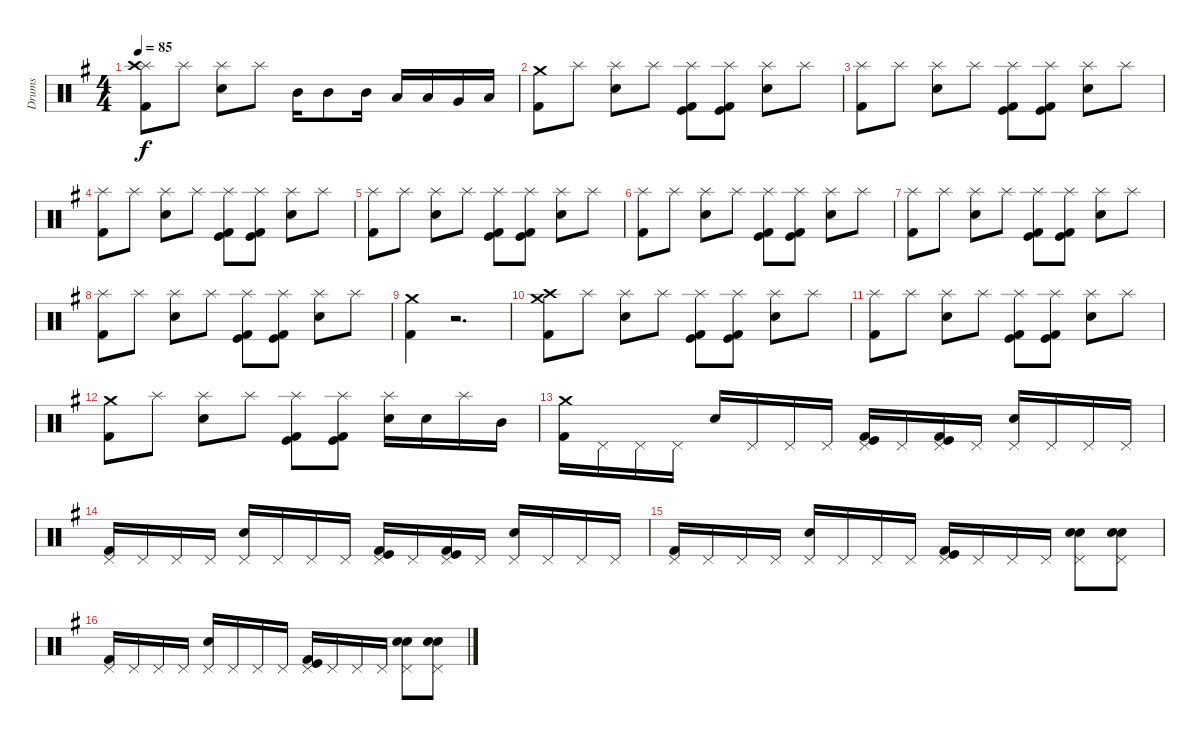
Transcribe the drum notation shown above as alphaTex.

\track ("Drums" "Drums") {instrument percussion}
\staff {score}
\articulation defaults
\ts (4 4)
\tempo 85
\clef neutral
\ks eminor
("Splash (hit)" "Kick (hit) 2" "Crash high (hit)").8{dy f} "Splash (hit)".8 ("Splash (hit)" "Snare (hit) 2").8 "Splash (hit)".8 "Mid Tom (hit)".16 "Mid Tom (hit)".8 "Mid Tom (hit)".16 "Low Tom (hit)".16 "Low Tom (hit)".16 "Very Low Tom (hit)".16 "Low Floor Tom (hit)".16 |
("Kick (hit) 2" "Crash medium (hit)").8 "Splash (hit)".8 ("Splash (hit)" "Snare (hit) 2").8 "Splash (hit)".8 ("Splash (hit)" "Kick (hit)" "Kick (hit) 2").8 ("Splash (hit)" "Kick (hit)" "Kick (hit) 2").8 ("Splash (hit)" "Snare (hit) 2").8 "Splash (hit)".8 |
("Splash (hit)" "Kick (hit) 2").8 "Splash (hit)".8 ("Splash (hit)" "Snare (hit) 2").8 "Splash (hit)".8 ("Splash (hit)" "Kick (hit)" "Kick (hit) 2").8 ("Splash (hit)" "Kick (hit)" "Kick (hit) 2").8 ("Splash (hit)" "Snare (hit) 2").8 "Splash (hit)".8 |
("Splash (hit)" "Kick (hit) 2").8 "Splash (hit)".8 ("Splash (hit)" "Snare (hit) 2").8 "Splash (hit)".8 ("Splash (hit)" "Kick (hit)" "Kick (hit) 2").8 ("Splash (hit)" "Kick (hit)" "Kick (hit) 2").8 ("Splash (hit)" "Snare (hit) 2").8 "Splash (hit)".8 |
("Splash (hit)" "Kick (hit) 2").8 "Splash (hit)".8 ("Splash (hit)" "Snare (hit) 2").8 "Splash (hit)".8 ("Splash (hit)" "Kick (hit)" "Kick (hit) 2").8 ("Splash (hit)" "Kick (hit)" "Kick (hit) 2").8 ("Splash (hit)" "Snare (hit) 2").8 "Splash (hit)".8 |
("Splash (hit)" "Kick (hit) 2").8 "Splash (hit)".8 ("Splash (hit)" "Snare (hit) 2").8 "Splash (hit)".8 ("Splash (hit)" "Kick (hit)" "Kick (hit) 2").8 ("Splash (hit)" "Kick (hit)" "Kick (hit) 2").8 ("Splash (hit)" "Snare (hit) 2").8 "Splash (hit)".8 |
("Splash (hit)" "Kick (hit) 2").8 "Splash (hit)".8 ("Splash (hit)" "Snare (hit) 2").8 "Splash (hit)".8 ("Splash (hit)" "Kick (hit)" "Kick (hit) 2").8 ("Splash (hit)" "Kick (hit)" "Kick (hit) 2").8 ("Splash (hit)" "Snare (hit) 2").8 "Splash (hit)".8 |
("Splash (hit)" "Kick (hit) 2").8 "Splash (hit)".8 ("Splash (hit)" "Snare (hit) 2").8 "Splash (hit)".8 ("Splash (hit)" "Kick (hit) 2" "Kick (hit)").8 ("Splash (hit)" "Kick (hit)" "Kick (hit) 2").8 ("Splash (hit)" "Snare (hit) 2").8 "Splash (hit)".8 |
("Kick (hit) 2" "Crash medium (hit)").4 r.2{d} |
("Kick (hit) 2" "Crash high (hit)" "Crash medium (hit)").8 "Splash (hit)".8 ("Splash (hit)" "Snare (hit) 2").8 "Splash (hit)".8 ("Splash (hit)" "Kick (hit)" "Kick (hit) 2").8 ("Splash (hit)" "Kick (hit)" "Kick (hit) 2").8 ("Splash (hit)" "Snare (hit) 2").8 "Splash (hit)".8 |
("Splash (hit)" "Kick (hit) 2").8 "Splash (hit)".8 ("Splash (hit)" "Snare (hit) 2").8 "Splash (hit)".8 ("Splash (hit)" "Kick (hit)" "Kick (hit) 2").8 ("Splash (hit)" "Kick (hit)" "Kick (hit) 2").8 ("Splash (hit)" "Snare (hit) 2").8 "Splash (hit)".8 |
("Kick (hit) 2" "Crash medium (hit)").8 "Splash (hit)".8 ("Splash (hit)" "Snare (hit) 2").8 "Splash (hit)".8 ("Splash (hit)" "Kick (hit)" "Kick (hit) 2").8 ("Splash (hit)" "Kick (hit)" "Kick (hit) 2").8 ("Splash (hit)" "Snare (hit) 2").16 "Snare (hit) 2".16 "Splash (hit)".16 "Mid Tom (hit)".16 |
("Crash medium (hit)" "Kick (hit) 2").16 "Pedal Hi-Hat (hit)".16 "Pedal Hi-Hat (hit)".16 "Pedal Hi-Hat (hit)".16 "Snare (hit) 2".16 "Pedal Hi-Hat (hit)".16 "Pedal Hi-Hat (hit)".16 "Pedal Hi-Hat (hit)".16 ("Kick (hit)" "Pedal Hi-Hat (hit)" "Kick (hit) 2").16 "Pedal Hi-Hat (hit)".16 ("Kick (hit)" "Pedal Hi-Hat (hit)" "Kick (hit) 2").16 "Pedal Hi-Hat (hit)".16 ("Pedal Hi-Hat (hit)" "Snare (hit) 2").16 "Pedal Hi-Hat (hit)".16 "Pedal Hi-Hat (hit)".16 "Pedal Hi-Hat (hit)".16 |
("Pedal Hi-Hat (hit)" "Kick (hit) 2").16 "Pedal Hi-Hat (hit)".16 "Pedal Hi-Hat (hit)".16 "Pedal Hi-Hat (hit)".16 ("Pedal Hi-Hat (hit)" "Snare (hit) 2").16 "Pedal Hi-Hat (hit)".16 "Pedal Hi-Hat (hit)".16 "Pedal Hi-Hat (hit)".16 ("Pedal Hi-Hat (hit)" "Kick (hit)" "Kick (hit) 2").16 "Pedal Hi-Hat (hit)".16 ("Pedal Hi-Hat (hit)" "Kick (hit)" "Kick (hit) 2").16 "Pedal Hi-Hat (hit)".16 ("Pedal Hi-Hat (hit)" "Snare (hit) 2").16 "Pedal Hi-Hat (hit)".16 "Pedal Hi-Hat (hit)".16 "Pedal Hi-Hat (hit)".16 |
("Pedal Hi-Hat (hit)" "Kick (hit) 2").16 "Pedal Hi-Hat (hit)".16 "Pedal Hi-Hat (hit)".16 "Pedal Hi-Hat (hit)".16 ("Pedal Hi-Hat (hit)" "Snare (hit) 2").16 "Pedal Hi-Hat (hit)".16 "Pedal Hi-Hat (hit)".16 "Pedal Hi-Hat (hit)".16 ("Pedal Hi-Hat (hit)" "Kick (hit)" "Kick (hit) 2").16 "Pedal Hi-Hat (hit)".16 "Pedal Hi-Hat (hit)".16 "Pedal Hi-Hat (hit)".16 ("Snare (hit) 2" "Pedal Hi-Hat (hit)" "Electric Snare (hit)").8 ("Snare (hit) 2" "Pedal Hi-Hat (hit)" "Electric Snare (hit)").8 |
("Pedal Hi-Hat (hit)" "Kick (hit) 2").16 "Pedal Hi-Hat (hit)".16 "Pedal Hi-Hat (hit)".16 "Pedal Hi-Hat (hit)".16 ("Pedal Hi-Hat (hit)" "Snare (hit) 2").16 "Pedal Hi-Hat (hit)".16 "Pedal Hi-Hat (hit)".16 "Pedal Hi-Hat (hit)".16 ("Pedal Hi-Hat (hit)" "Kick (hit)" "Kick (hit) 2").16 "Pedal Hi-Hat (hit)".16 "Pedal Hi-Hat (hit)".16 "Pedal Hi-Hat (hit)".16 ("Snare (hit) 2" "Pedal Hi-Hat (hit)" "Electric Snare (hit)").8 ("Snare (hit) 2" "Pedal Hi-Hat (hit)" "Electric Snare (hit)").8
